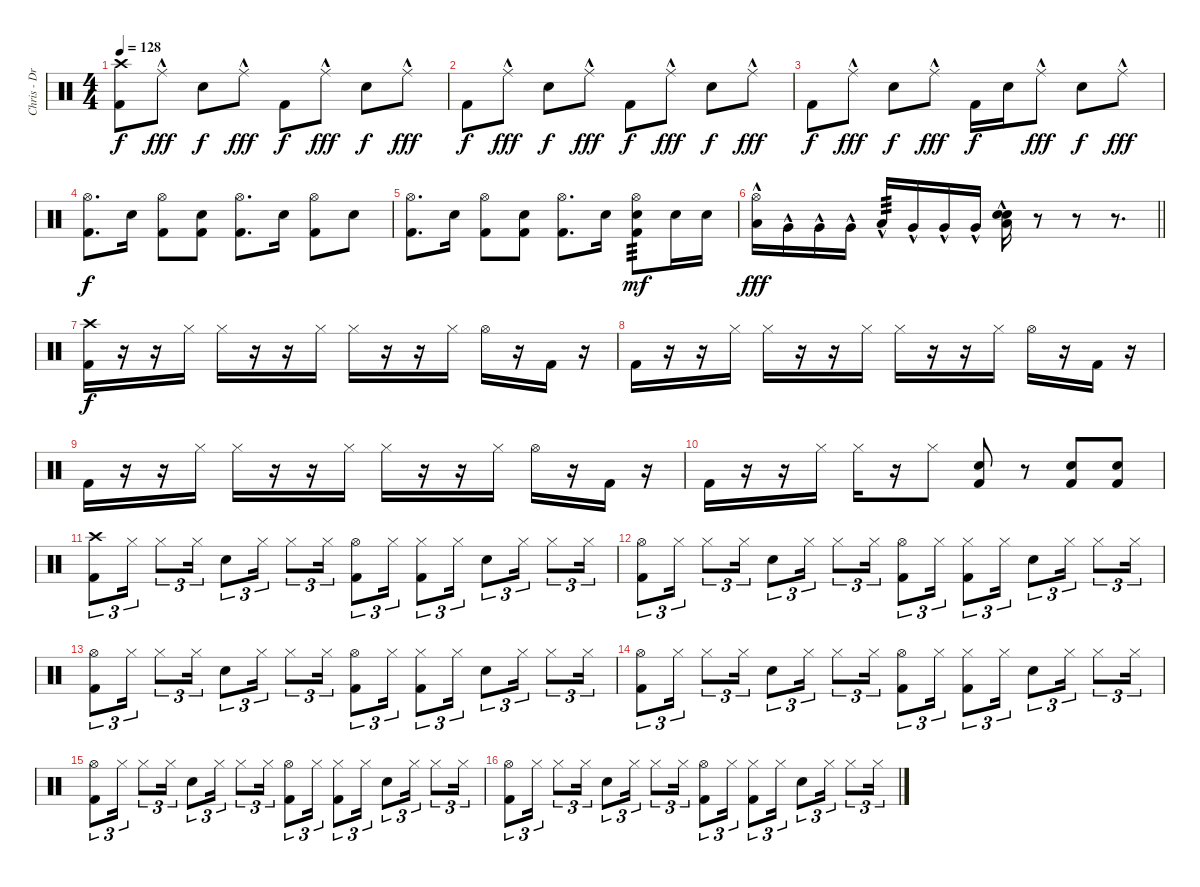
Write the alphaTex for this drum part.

\track ("Chris - Drums" "Chris - Dr") {instrument percussion}
\staff {score}
\articulation defaults
\ts (4 4)
\tempo 128
\clef neutral
\ks c
("Crash high (hit)" "Kick (hit) 2").8{dy f} "Ride (middle)"{hac}.8{dy fff} "Electric Snare (hit)".8{dy f} "Ride (middle)"{hac}.8{dy fff} "Kick (hit) 2".8{dy f} "Ride (middle)"{hac}.8{dy fff} "Electric Snare (hit)".8{dy f} "Ride (middle)"{hac}.8{dy fff} |
"Kick (hit) 2".8{dy f} "Ride (middle)"{hac}.8{dy fff} "Electric Snare (hit)".8{dy f} "Ride (middle)"{hac}.8{dy fff} "Kick (hit) 2".8{dy f} "Ride (middle)"{hac}.8{dy fff} "Electric Snare (hit)".8{dy f} "Ride (middle)"{hac}.8{dy fff} |
"Kick (hit) 2".8{dy f} "Ride (middle)"{hac}.8{dy fff} "Electric Snare (hit)".8{dy f} "Ride (middle)"{hac}.8{dy fff} "Kick (hit) 2".16{dy f} "Electric Snare (hit)".16 "Ride (middle)"{hac}.8{dy fff} "Electric Snare (hit)".8{dy f} "Ride (middle)"{hac}.8{dy fff} |
("Hi-Hat (open)" "Kick (hit) 2").8{d dy f} "Electric Snare (hit)".16 ("Hi-Hat (open)" "Kick (hit) 2").8 ("Electric Snare (hit)" "Kick (hit) 2").8 ("Hi-Hat (open)" "Kick (hit) 2").8{d} "Electric Snare (hit)".16 ("Hi-Hat (open)" "Kick (hit) 2").8 "Electric Snare (hit)".8 |
("Hi-Hat (open)" "Kick (hit) 2").8{d} "Electric Snare (hit)".16 ("Hi-Hat (open)" "Kick (hit) 2").8 ("Electric Snare (hit)" "Kick (hit) 2").8 ("Hi-Hat (open)" "Kick (hit) 2").8{d} "Electric Snare (hit)".16 ("Hi-Hat (open)" "Electric Snare (hit)" "Kick (hit) 2").8{tp 3 dy mf} "Electric Snare (hit)".16 "Electric Snare (hit)".16 |
\barLineRight lightlight
("Hi-Hat (open)" "Low Tom (hit)"{hac}).16{dy fff} "Very Low Tom (hit)"{hac}.16 "Very Low Tom (hit)"{hac}.16 "Very Low Tom (hit)"{hac}.16 "Low Tom (hit)"{hac}.16{tp 3} "Very Low Tom (hit)"{hac}.16 "Very Low Tom (hit)"{hac}.16 "Very Low Tom (hit)"{hac}.16 ("Electric Snare (hit)" "Electric Snare (hit)" "Low Tom (hit)"{hac}).16 r.8 r.8 r.8{d} |
("Crash high (hit)" "Kick (hit) 2").16{dy f} r.16 r.16 "Hi-Hat (closed)".16 "Hi-Hat (closed)".16 r.16 r.16 "Hi-Hat (closed)".16 "Hi-Hat (closed)".16 r.16 r.16 "Hi-Hat (closed)".16 "Hi-Hat (open)".16 r.16 "Kick (hit) 2".16 r.16 |
"Kick (hit) 2".16 r.16 r.16 "Hi-Hat (closed)".16 "Hi-Hat (closed)".16 r.16 r.16 "Hi-Hat (closed)".16 "Hi-Hat (closed)".16 r.16 r.16 "Hi-Hat (closed)".16 "Hi-Hat (open)".16 r.16 "Kick (hit) 2".16 r.16 |
"Kick (hit) 2".16 r.16 r.16 "Hi-Hat (closed)".16 "Hi-Hat (closed)".16 r.16 r.16 "Hi-Hat (closed)".16 "Hi-Hat (closed)".16 r.16 r.16 "Hi-Hat (closed)".16 "Hi-Hat (open)".16 r.16 "Kick (hit) 2".16 r.16 |
"Kick (hit) 2".16 r.16 r.16 "Hi-Hat (closed)".16 "Hi-Hat (closed)".16 r.16 "Hi-Hat (closed)".8 ("Electric Snare (hit)" "Kick (hit) 2").8 r.8 ("Electric Snare (hit)" "Kick (hit) 2").8 ("Electric Snare (hit)" "Kick (hit) 2").8 |
("Crash high (hit)" "Kick (hit) 2").8{tu (3 2)} "Hi-Hat (closed)".16{tu (3 2)} "Hi-Hat (closed)".8{tu (3 2)} "Hi-Hat (closed)".16{tu (3 2)} "Electric Snare (hit)".8{tu (3 2)} "Hi-Hat (closed)".16{tu (3 2)} "Hi-Hat (closed)".8{tu (3 2)} "Hi-Hat (closed)".16{tu (3 2)} ("Hi-Hat (open)" "Kick (hit) 2").8{tu (3 2)} "Hi-Hat (closed)".16{tu (3 2)} ("Hi-Hat (closed)" "Kick (hit) 2").8{tu (3 2)} "Hi-Hat (closed)".16{tu (3 2)} "Electric Snare (hit)".8{tu (3 2)} "Hi-Hat (closed)".16{tu (3 2)} "Hi-Hat (closed)".8{tu (3 2)} "Hi-Hat (closed)".16{tu (3 2)} |
("Hi-Hat (open)" "Kick (hit) 2").8{tu (3 2)} "Hi-Hat (closed)".16{tu (3 2)} "Hi-Hat (closed)".8{tu (3 2)} "Hi-Hat (closed)".16{tu (3 2)} "Electric Snare (hit)".8{tu (3 2)} "Hi-Hat (closed)".16{tu (3 2)} "Hi-Hat (closed)".8{tu (3 2)} "Hi-Hat (closed)".16{tu (3 2)} ("Hi-Hat (open)" "Kick (hit) 2").8{tu (3 2)} "Hi-Hat (closed)".16{tu (3 2)} ("Hi-Hat (closed)" "Kick (hit) 2").8{tu (3 2)} "Hi-Hat (closed)".16{tu (3 2)} "Electric Snare (hit)".8{tu (3 2)} "Hi-Hat (closed)".16{tu (3 2)} "Hi-Hat (closed)".8{tu (3 2)} "Hi-Hat (closed)".16{tu (3 2)} |
("Hi-Hat (open)" "Kick (hit) 2").8{tu (3 2)} "Hi-Hat (closed)".16{tu (3 2)} "Hi-Hat (closed)".8{tu (3 2)} "Hi-Hat (closed)".16{tu (3 2)} "Electric Snare (hit)".8{tu (3 2)} "Hi-Hat (closed)".16{tu (3 2)} "Hi-Hat (closed)".8{tu (3 2)} "Hi-Hat (closed)".16{tu (3 2)} ("Hi-Hat (open)" "Kick (hit) 2").8{tu (3 2)} "Hi-Hat (closed)".16{tu (3 2)} ("Hi-Hat (closed)" "Kick (hit) 2").8{tu (3 2)} "Hi-Hat (closed)".16{tu (3 2)} "Electric Snare (hit)".8{tu (3 2)} "Hi-Hat (closed)".16{tu (3 2)} "Hi-Hat (closed)".8{tu (3 2)} "Hi-Hat (closed)".16{tu (3 2)} |
("Hi-Hat (open)" "Kick (hit) 2").8{tu (3 2)} "Hi-Hat (closed)".16{tu (3 2)} "Hi-Hat (closed)".8{tu (3 2)} "Hi-Hat (closed)".16{tu (3 2)} "Electric Snare (hit)".8{tu (3 2)} "Hi-Hat (closed)".16{tu (3 2)} "Hi-Hat (closed)".8{tu (3 2)} "Hi-Hat (closed)".16{tu (3 2)} ("Hi-Hat (open)" "Kick (hit) 2").8{tu (3 2)} "Hi-Hat (closed)".16{tu (3 2)} ("Hi-Hat (closed)" "Kick (hit) 2").8{tu (3 2)} "Hi-Hat (closed)".16{tu (3 2)} "Electric Snare (hit)".8{tu (3 2)} "Hi-Hat (closed)".16{tu (3 2)} "Hi-Hat (closed)".8{tu (3 2)} "Hi-Hat (closed)".16{tu (3 2)} |
("Hi-Hat (open)" "Kick (hit) 2").8{tu (3 2)} "Hi-Hat (closed)".16{tu (3 2)} "Hi-Hat (closed)".8{tu (3 2)} "Hi-Hat (closed)".16{tu (3 2)} "Electric Snare (hit)".8{tu (3 2)} "Hi-Hat (closed)".16{tu (3 2)} "Hi-Hat (closed)".8{tu (3 2)} "Hi-Hat (closed)".16{tu (3 2)} ("Hi-Hat (open)" "Kick (hit) 2").8{tu (3 2)} "Hi-Hat (closed)".16{tu (3 2)} ("Hi-Hat (closed)" "Kick (hit) 2").8{tu (3 2)} "Hi-Hat (closed)".16{tu (3 2)} "Electric Snare (hit)".8{tu (3 2)} "Hi-Hat (closed)".16{tu (3 2)} "Hi-Hat (closed)".8{tu (3 2)} "Hi-Hat (closed)".16{tu (3 2)} |
("Hi-Hat (open)" "Kick (hit) 2").8{tu (3 2)} "Hi-Hat (closed)".16{tu (3 2)} "Hi-Hat (closed)".8{tu (3 2)} "Hi-Hat (closed)".16{tu (3 2)} "Electric Snare (hit)".8{tu (3 2)} "Hi-Hat (closed)".16{tu (3 2)} "Hi-Hat (closed)".8{tu (3 2)} "Hi-Hat (closed)".16{tu (3 2)} ("Hi-Hat (open)" "Kick (hit) 2").8{tu (3 2)} "Hi-Hat (closed)".16{tu (3 2)} ("Hi-Hat (closed)" "Kick (hit) 2").8{tu (3 2)} "Hi-Hat (closed)".16{tu (3 2)} "Electric Snare (hit)".8{tu (3 2)} "Hi-Hat (closed)".16{tu (3 2)} "Hi-Hat (closed)".8{tu (3 2)} "Hi-Hat (closed)".16{tu (3 2)}
